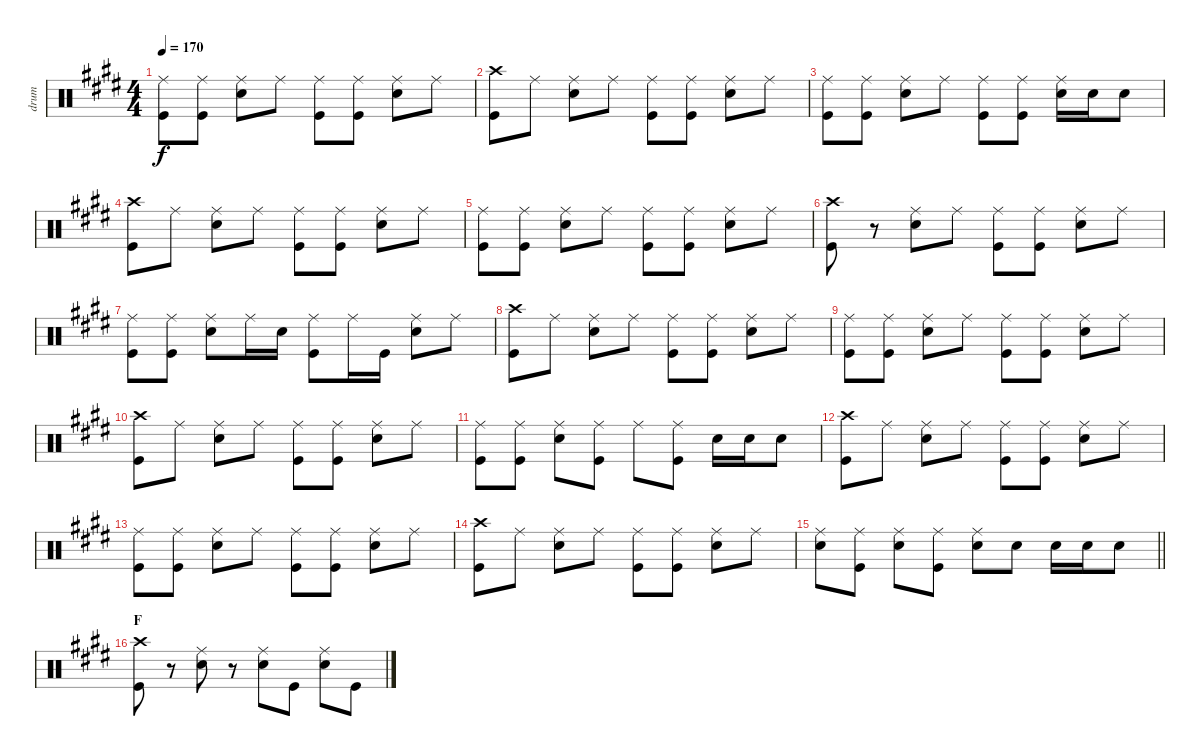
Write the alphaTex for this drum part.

\track ("drum" "drum") {instrument percussion}
\staff {score}
\articulation defaults
\ts (4 4)
\tempo 170
\clef neutral
\ks e
("Ride (middle)" "Kick (hit)").8{dy f} ("Ride (middle)" "Kick (hit)").8 ("Ride (middle)" "Snare (hit) 2").8 "Ride (middle)".8 ("Ride (middle)" "Kick (hit)").8 ("Ride (middle)" "Kick (hit)").8 ("Ride (middle)" "Snare (hit) 2").8 "Ride (middle)".8 |
("Crash high (hit)" "Kick (hit)").8 "Ride (middle)".8 ("Ride (middle)" "Snare (hit) 2").8 "Ride (middle)".8 ("Ride (middle)" "Kick (hit)").8 ("Ride (middle)" "Kick (hit)").8 ("Ride (middle)" "Snare (hit) 2").8 "Ride (middle)".8 |
("Ride (middle)" "Kick (hit)").8 ("Ride (middle)" "Kick (hit)").8 ("Ride (middle)" "Snare (hit) 2").8 "Ride (middle)".8 ("Ride (middle)" "Kick (hit)").8 ("Ride (middle)" "Kick (hit)").8 ("Ride (middle)" "Snare (hit) 2").16 "Snare (hit) 2".16 "Snare (hit) 2".8 |
("Crash high (hit)" "Kick (hit)").8 "Ride (middle)".8 ("Ride (middle)" "Snare (hit) 2").8 "Ride (middle)".8 ("Ride (middle)" "Kick (hit)").8 ("Ride (middle)" "Kick (hit)").8 ("Ride (middle)" "Snare (hit) 2").8 "Ride (middle)".8 |
("Ride (middle)" "Kick (hit)").8 ("Ride (middle)" "Kick (hit)").8 ("Ride (middle)" "Snare (hit) 2").8 "Ride (middle)".8 ("Ride (middle)" "Kick (hit)").8 ("Ride (middle)" "Kick (hit)").8 ("Ride (middle)" "Snare (hit) 2").8 "Ride (middle)".8 |
("Crash high (hit)" "Kick (hit)").8 r.8 ("Ride (middle)" "Snare (hit) 2").8 "Ride (middle)".8 ("Ride (middle)" "Kick (hit)").8 ("Ride (middle)" "Kick (hit)").8 ("Ride (middle)" "Snare (hit) 2").8 "Ride (middle)".8 |
("Ride (middle)" "Kick (hit)").8 ("Ride (middle)" "Kick (hit)").8 ("Ride (middle)" "Snare (hit) 2").8 "Ride (middle)".16 "Snare (hit) 2".16 ("Ride (middle)" "Kick (hit)").8 "Ride (middle)".16 "Kick (hit)".16 ("Ride (middle)" "Snare (hit) 2").8 "Ride (middle)".8 |
("Crash high (hit)" "Kick (hit)").8 "Ride (middle)".8 ("Ride (middle)" "Snare (hit) 2").8 "Ride (middle)".8 ("Ride (middle)" "Kick (hit)").8 ("Ride (middle)" "Kick (hit)").8 ("Ride (middle)" "Snare (hit) 2").8 "Ride (middle)".8 |
("Ride (middle)" "Kick (hit)").8 ("Ride (middle)" "Kick (hit)").8 ("Ride (middle)" "Snare (hit) 2").8 "Ride (middle)".8 ("Ride (middle)" "Kick (hit)").8 ("Ride (middle)" "Kick (hit)").8 ("Ride (middle)" "Snare (hit) 2").8 "Ride (middle)".8 |
("Crash high (hit)" "Kick (hit)").8 "Ride (middle)".8 ("Ride (middle)" "Snare (hit) 2").8 "Ride (middle)".8 ("Ride (middle)" "Kick (hit)").8 ("Ride (middle)" "Kick (hit)").8 ("Ride (middle)" "Snare (hit) 2").8 "Ride (middle)".8 |
("Ride (middle)" "Kick (hit)").8 ("Ride (middle)" "Kick (hit)").8 ("Ride (middle)" "Snare (hit) 2").8 ("Ride (middle)" "Kick (hit)").8 "Ride (middle)".8 ("Ride (middle)" "Kick (hit)").8 "Snare (hit) 2".16 "Snare (hit) 2".16 "Snare (hit) 2".8 |
("Crash high (hit)" "Kick (hit)").8 "Ride (middle)".8 ("Ride (middle)" "Snare (hit) 2").8 "Ride (middle)".8 ("Ride (middle)" "Kick (hit)").8 ("Ride (middle)" "Kick (hit)").8 ("Ride (middle)" "Snare (hit) 2").8 "Ride (middle)".8 |
("Ride (middle)" "Kick (hit)").8 ("Ride (middle)" "Kick (hit)").8 ("Ride (middle)" "Snare (hit) 2").8 "Ride (middle)".8 ("Ride (middle)" "Kick (hit)").8 ("Ride (middle)" "Kick (hit)").8 ("Ride (middle)" "Snare (hit) 2").8 "Ride (middle)".8 |
("Crash high (hit)" "Kick (hit)").8 "Ride (middle)".8 ("Ride (middle)" "Snare (hit) 2").8 "Ride (middle)".8 ("Ride (middle)" "Kick (hit)").8 ("Ride (middle)" "Kick (hit)").8 ("Ride (middle)" "Snare (hit) 2").8 "Ride (middle)".8 |
\barLineRight lightlight
("Ride (middle)" "Snare (hit) 2").8 ("Ride (middle)" "Kick (hit)").8 ("Ride (middle)" "Snare (hit) 2").8 ("Ride (middle)" "Kick (hit)").8 ("Ride (middle)" "Snare (hit) 2").8 "Snare (hit) 2".8 "Snare (hit) 2".16 "Snare (hit) 2".16 "Snare (hit) 2".8 |
\section ("" "F")
("Crash high (hit)" "Kick (hit)").8 r.8 ("Ride (middle)" "Snare (hit) 2").8 r.8 ("Ride (middle)" "Snare (hit) 2").8 "Kick (hit)".8 ("Ride (middle)" "Snare (hit) 2").8 "Kick (hit)".8
